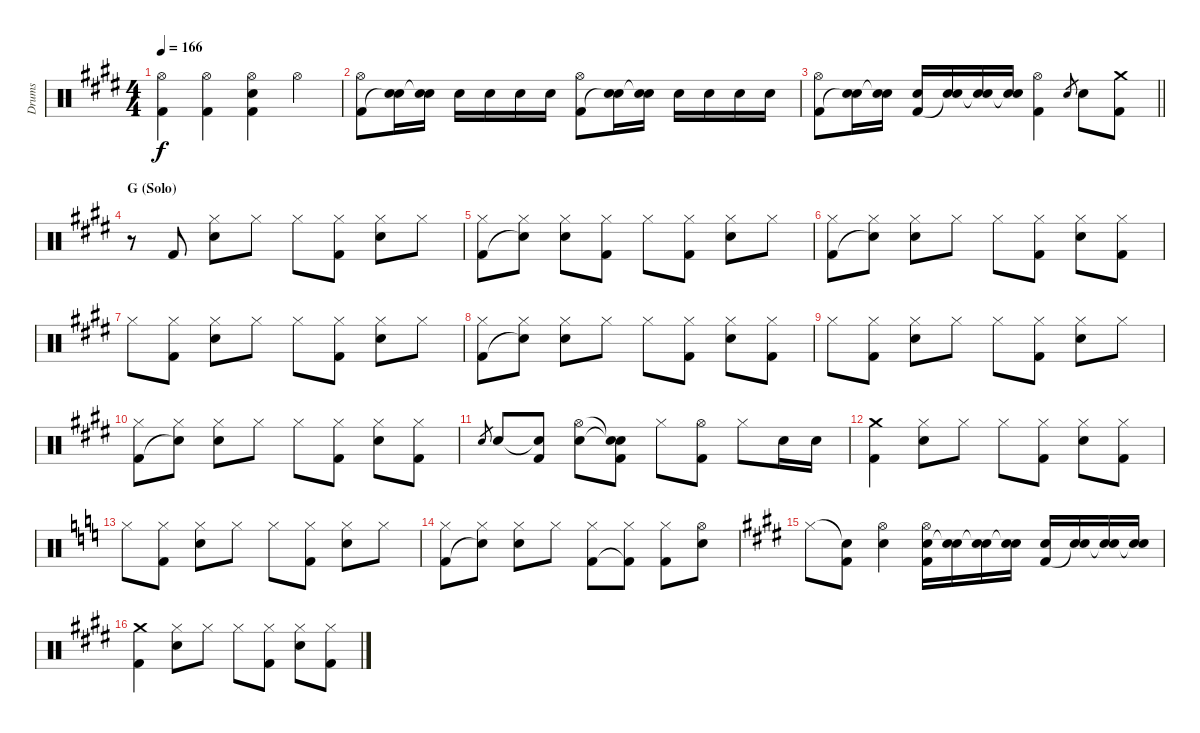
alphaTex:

\track ("Drums" "Drums") {instrument percussion}
\staff {score}
\articulation defaults
\ts (4 4)
\tempo 166
\clef neutral
\ks e
("Hi-Hat (open)" "Kick (hit) 2").4{dy f} ("Hi-Hat (open)" "Kick (hit) 2").4 ("Hi-Hat (open)" "Snare (hit) 2" "Kick (hit) 2").4 "Hi-Hat (open)".4 |
("Hi-Hat (open)" "Kick (hit) 2").8 ("Snare (hit) 2" "Snare (hit)"{t}).16 ("Snare (hit) 2" "Snare (hit)"{t}).16 "Snare (hit) 2".16 "Snare (hit) 2".16 "Snare (hit) 2".16 "Snare (hit) 2".16 ("Hi-Hat (open)" "Kick (hit) 2").8 ("Snare (hit) 2" "Snare (hit)"{t}).16 ("Snare (hit) 2" "Snare (hit)"{t}).16 "Snare (hit) 2".16 "Snare (hit) 2".16 "Snare (hit) 2".16 "Snare (hit) 2".16 |
\barLineRight lightlight
("Hi-Hat (open)" "Kick (hit) 2").8 ("Snare (hit) 2" "Snare (hit)"{t}).16 ("Snare (hit) 2" "Snare (hit)"{t}).16 ("Snare (hit) 2" "Kick (hit) 2").16 ("Snare (hit) 2" "Snare (hit)"{t}).16 ("Snare (hit) 2" "Snare (hit)"{t}).16 ("Snare (hit) 2" "Snare (hit)"{t}).16 ("Hi-Hat (open)" "Kick (hit) 2").4 "Snare (hit) 2".8{gr} "Snare (hit) 2".8 ("Crash medium (hit)" "Kick (hit) 2").8 |
\section ("" "G (Solo)")
r.8 "Kick (hit) 2".8 ("Hi-Hat (closed)" "Snare (hit) 2").8 "Hi-Hat (closed)".8 "Hi-Hat (closed)".8 ("Hi-Hat (closed)" "Kick (hit) 2").8 ("Hi-Hat (closed)" "Snare (hit) 2").8 "Hi-Hat (closed)".8 |
("Hi-Hat (closed)" "Kick (hit) 2").8 ("Hi-Hat (closed)" "Snare (hit)"{t}).8 ("Hi-Hat (closed)" "Snare (hit) 2").8 ("Hi-Hat (closed)" "Kick (hit) 2").8 "Hi-Hat (closed)".8 ("Hi-Hat (closed)" "Kick (hit) 2").8 ("Hi-Hat (closed)" "Snare (hit) 2").8 "Hi-Hat (closed)".8 |
("Hi-Hat (closed)" "Kick (hit) 2").8 ("Hi-Hat (closed)" "Snare (hit)"{t}).8 ("Hi-Hat (closed)" "Snare (hit) 2").8 "Hi-Hat (closed)".8 "Hi-Hat (closed)".8 ("Hi-Hat (closed)" "Kick (hit) 2").8 ("Hi-Hat (closed)" "Snare (hit) 2").8 ("Hi-Hat (closed)" "Kick (hit) 2").8 |
"Hi-Hat (closed)".8 ("Hi-Hat (closed)" "Kick (hit) 2").8 ("Hi-Hat (closed)" "Snare (hit) 2").8 "Hi-Hat (closed)".8 "Hi-Hat (closed)".8 ("Hi-Hat (closed)" "Kick (hit) 2").8 ("Hi-Hat (closed)" "Snare (hit) 2").8 "Hi-Hat (closed)".8 |
("Hi-Hat (closed)" "Kick (hit) 2").8 ("Hi-Hat (closed)" "Snare (hit)"{t}).8 ("Hi-Hat (closed)" "Snare (hit) 2").8 "Hi-Hat (closed)".8 "Hi-Hat (closed)".8 ("Hi-Hat (closed)" "Kick (hit) 2").8 ("Hi-Hat (closed)" "Snare (hit) 2").8 ("Hi-Hat (closed)" "Kick (hit) 2").8 |
"Hi-Hat (closed)".8 ("Hi-Hat (closed)" "Kick (hit) 2").8 ("Hi-Hat (closed)" "Snare (hit) 2").8 "Hi-Hat (closed)".8 "Hi-Hat (closed)".8 ("Hi-Hat (closed)" "Kick (hit) 2").8 ("Hi-Hat (closed)" "Snare (hit) 2").8 "Hi-Hat (closed)".8 |
("Hi-Hat (closed)" "Kick (hit) 2").8 ("Hi-Hat (closed)" "Snare (hit)"{t}).8 ("Hi-Hat (closed)" "Snare (hit) 2").8 "Hi-Hat (closed)".8 "Hi-Hat (closed)".8 ("Hi-Hat (closed)" "Kick (hit) 2").8 ("Hi-Hat (closed)" "Snare (hit) 2").8 ("Hi-Hat (closed)" "Kick (hit) 2").8 |
"Snare (hit) 2".8{gr} "Snare (hit) 2".8 ("Snare (hit)"{t} "Kick (hit) 2").8 ("Hi-Hat (open)" "Snare (hit) 2").8 ("Snare (hit)"{t} "Snare (hit)"{t} "Kick (hit) 2").8 "Hi-Hat (closed)".8 ("Hi-Hat (open)" "Kick (hit) 2").8 "Hi-Hat (closed)".8 "Snare (hit) 2".16 "Snare (hit) 2".16 |
("Crash medium (hit)" "Kick (hit) 2").4 ("Hi-Hat (closed)" "Snare (hit) 2").8 "Hi-Hat (closed)".8 "Hi-Hat (closed)".8 ("Hi-Hat (closed)" "Kick (hit) 2").8 ("Hi-Hat (closed)" "Snare (hit) 2").8 ("Hi-Hat (closed)" "Kick (hit) 2").8 |
\ks c "Hi-Hat (closed)".8
("Hi-Hat (closed)" "Kick (hit) 2").8 ("Hi-Hat (closed)" "Snare (hit) 2").8 "Hi-Hat (closed)".8 "Hi-Hat (closed)".8 ("Hi-Hat (closed)" "Kick (hit) 2").8 ("Hi-Hat (closed)" "Snare (hit) 2").8 "Hi-Hat (closed)".8 |
("Hi-Hat (closed)" "Kick (hit) 2").8 ("Hi-Hat (closed)" "Snare (hit)"{t}).8 ("Hi-Hat (closed)" "Snare (hit) 2").8 "Hi-Hat (closed)".8 ("Hi-Hat (closed)" "Kick (hit) 2").8 ("Hi-Hat (closed)" "Kick (hit) 2"{t}).8 ("Hi-Hat (closed)" "Kick (hit) 2").8 ("Hi-Hat (open)" "Snare (hit) 2").8 |
\ks e "Hi-Hat (closed)".8
("Snare (hit)"{t} "Kick (hit) 2").8 ("Hi-Hat (open)" "Snare (hit) 2").4 ("Hi-Hat (open)" "Snare (hit) 2" "Kick (hit) 2").16 ("Snare (hit) 2" "Snare (hit)"{t}).16 ("Snare (hit) 2" "Snare (hit)"{t}).16 ("Snare (hit) 2" "Snare (hit)"{t}).16 ("Snare (hit) 2" "Kick (hit) 2").16 ("Snare (hit) 2" "Snare (hit)"{t}).16 ("Snare (hit) 2" "Snare (hit)"{t}).16 ("Snare (hit) 2" "Snare (hit)"{t}).16 |
("Crash medium (hit)" "Kick (hit) 2").4 ("Hi-Hat (closed)" "Snare (hit) 2").8 "Hi-Hat (closed)".8 "Hi-Hat (closed)".8 ("Hi-Hat (closed)" "Kick (hit) 2").8 ("Hi-Hat (closed)" "Snare (hit) 2").8 ("Hi-Hat (closed)" "Kick (hit) 2").8
